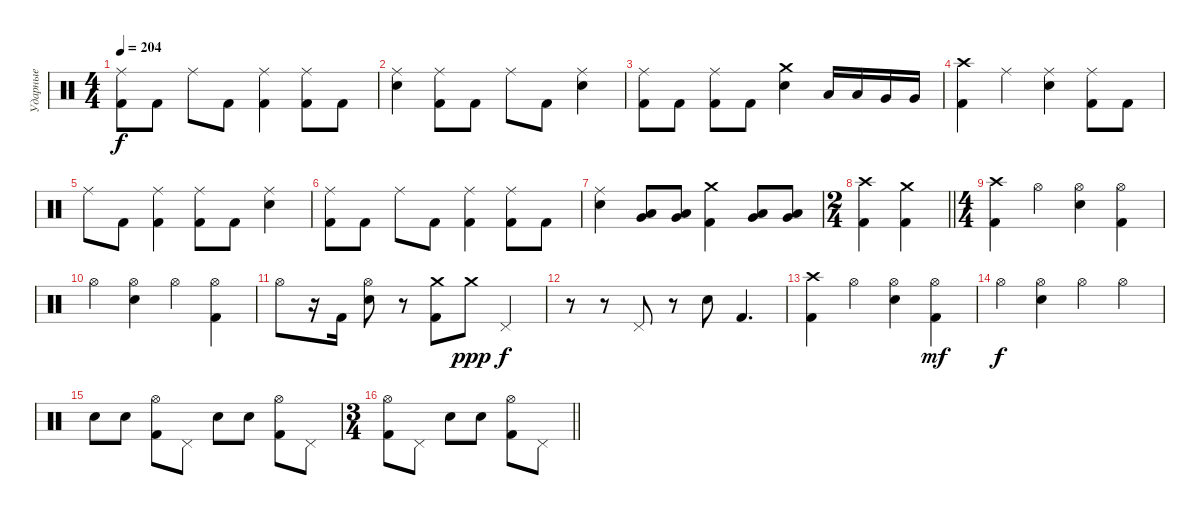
\track ("Ударные" "Ударные") {instrument percussion}
\staff {score}
\articulation defaults
\ts (4 4)
\tempo 204
\clef neutral
\ks c
("Ride (middle)" "Kick (hit) 2").8{dy f} "Kick (hit) 2".8 "Ride (middle)".8 "Kick (hit) 2".8 ("Ride (middle)" "Kick (hit) 2").4 ("Ride (middle)" "Kick (hit) 2").8 "Kick (hit) 2".8 |
("Ride (middle)" "Snare (hit) 2").4 ("Ride (middle)" "Kick (hit) 2").8 "Kick (hit) 2".8 "Ride (middle)".8 "Kick (hit) 2".8 ("Ride (middle)" "Snare (hit) 2").4 |
("Ride (middle)" "Kick (hit) 2").8 "Kick (hit) 2".8 ("Ride (middle)" "Kick (hit) 2").8 "Kick (hit) 2".8 ("Crash medium (hit)" "Snare (hit) 2").4 "Low Tom (hit)".16 "Low Tom (hit)".16 "Very Low Tom (hit)".16 "Very Low Tom (hit)".16 |
("Crash high (hit)" "Kick (hit) 2").4 "Ride (middle)".4 ("Ride (middle)" "Snare (hit) 2").4 ("Ride (middle)" "Kick (hit) 2").8 "Kick (hit) 2".8 |
"Ride (middle)".8 "Kick (hit) 2".8 ("Ride (middle)" "Kick (hit) 2").4 ("Ride (middle)" "Kick (hit) 2").8 "Kick (hit) 2".8 ("Ride (middle)" "Snare (hit) 2").4 |
("Ride (middle)" "Kick (hit) 2").8 "Kick (hit) 2".8 "Ride (middle)".8 "Kick (hit) 2".8 ("Ride (middle)" "Kick (hit) 2").4 ("Ride (middle)" "Kick (hit) 2").8 "Kick (hit) 2".8 |
("Ride (middle)" "Snare (hit) 2").4 ("Low Tom (hit)" "Very Low Tom (hit)").8 ("Low Tom (hit)" "Very Low Tom (hit)").8 ("Crash medium (hit)" "Kick (hit) 2").4 ("Low Tom (hit)" "Very Low Tom (hit)").8 ("Low Tom (hit)" "Very Low Tom (hit)").8 |
\ts (2 4)
\barLineRight lightlight
("Crash high (hit)" "Kick (hit) 2").4 ("Crash medium (hit)" "Kick (hit) 2").4 |
\ts (4 4)
("Crash high (hit)" "Kick (hit) 2").4 "Hi-Hat (open)".4 ("Hi-Hat (open)" "Snare (hit) 2").4 ("Hi-Hat (open)" "Kick (hit) 2").4 |
"Hi-Hat (open)".4 ("Hi-Hat (open)" "Snare (hit) 2").4 "Hi-Hat (open)".4 ("Hi-Hat (open)" "Kick (hit) 2").4 |
"Hi-Hat (open)".8 r.16 "Kick (hit) 2".16 ("Hi-Hat (open)" "Snare (hit) 2").8 r.8 ("Crash medium (hit)" "Kick (hit) 2").8 "Crash medium (hit)".8{dy ppp} "Pedal Hi-Hat (hit)".4{dy f} |
r.8 r.8 "Pedal Hi-Hat (hit)".8 r.8 "Snare (hit) 2".8 "Kick (hit) 2".4{d} |
("Crash high (hit)" "Kick (hit) 2").4 "Hi-Hat (open)".4 ("Hi-Hat (open)" "Snare (hit) 2").4 ("Hi-Hat (open)" "Kick (hit) 2").4{dy mf} |
"Hi-Hat (open)".4{dy f} ("Hi-Hat (open)" "Snare (hit) 2").4 "Hi-Hat (open)".4 "Hi-Hat (open)".4 |
"Snare (hit) 2".8 "Snare (hit) 2".8 ("Hi-Hat (open)" "Kick (hit) 2").8 "Pedal Hi-Hat (hit)".8 "Snare (hit) 2".8 "Snare (hit) 2".8 ("Hi-Hat (open)" "Kick (hit) 2").8 "Pedal Hi-Hat (hit)".8 |
\ts (3 4)
\barLineRight lightlight
("Hi-Hat (open)" "Kick (hit) 2").8 "Pedal Hi-Hat (hit)".8 "Snare (hit) 2".8 "Snare (hit) 2".8 ("Hi-Hat (open)" "Kick (hit) 2").8 "Pedal Hi-Hat (hit)".8
